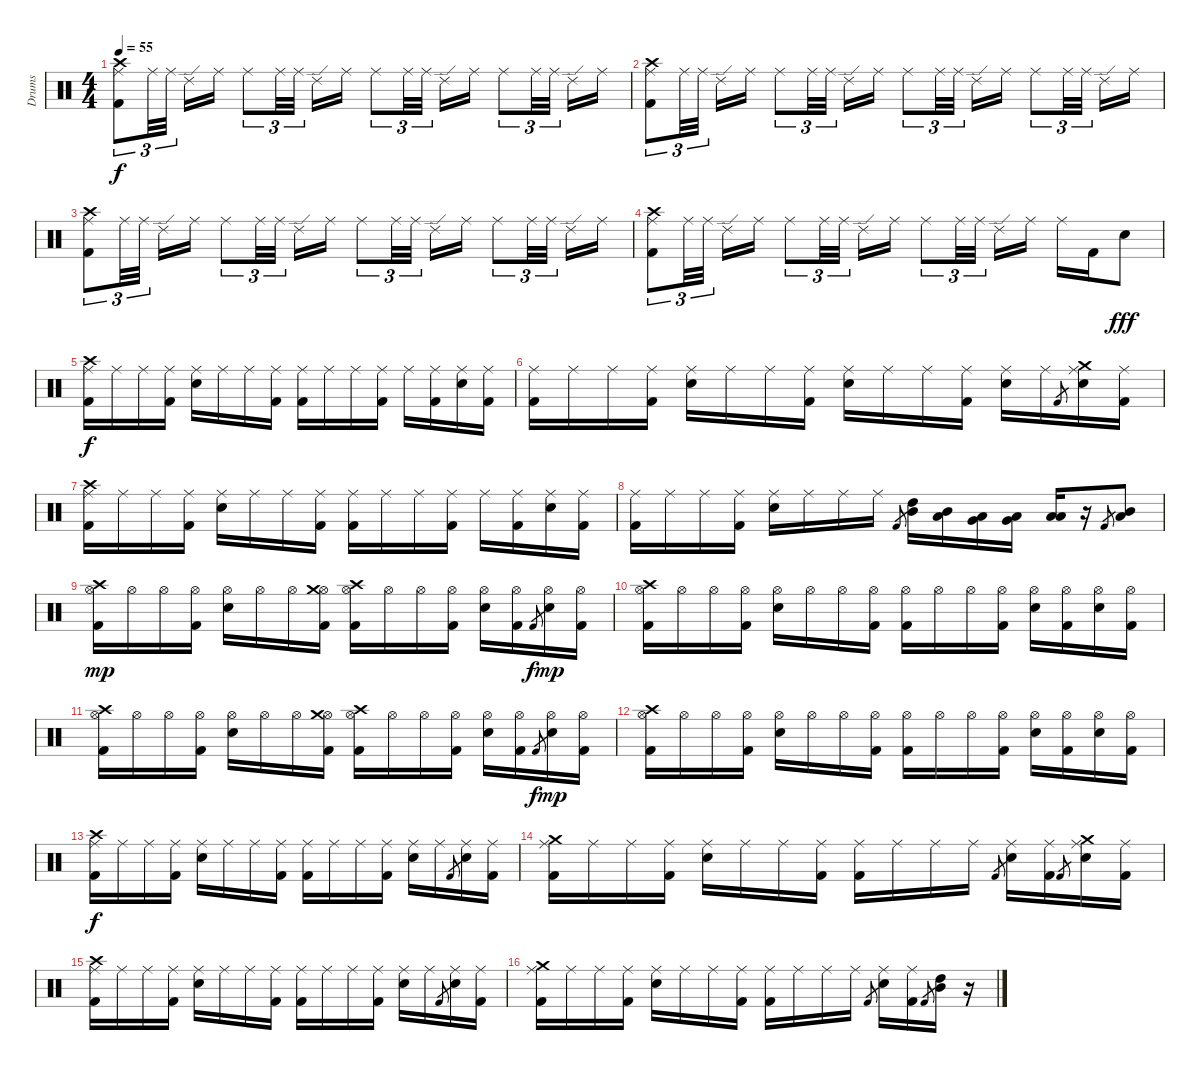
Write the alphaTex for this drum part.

\track ("Drums" "Drums") {instrument percussion}
\staff {score}
\articulation defaults
\ts (4 4)
\tempo 55
\clef neutral
\ks c
("Crash high (hit)" "Ride (middle)" "Kick (hit) 2").8{tu (3 2) dy f} "Ride (middle)".32{tu (3 2)} "Ride (middle)".32{tu (3 2)} "Ride (edge) 2".16 "Ride (middle)".16 "Ride (middle)".8{tu (3 2)} "Ride (middle)".32{tu (3 2)} "Ride (middle)".32{tu (3 2)} "Ride (edge) 2".16 "Ride (middle)".16 "Ride (middle)".8{tu (3 2)} "Ride (middle)".32{tu (3 2)} "Ride (middle)".32{tu (3 2)} "Ride (edge) 2".16 "Ride (middle)".16 "Ride (middle)".8{tu (3 2)} "Ride (middle)".32{tu (3 2)} "Ride (middle)".32{tu (3 2)} "Ride (edge) 2".16 "Ride (middle)".16 |
("Crash high (hit)" "Ride (middle)" "Kick (hit) 2").8{tu (3 2)} "Ride (middle)".32{tu (3 2)} "Ride (middle)".32{tu (3 2)} "Ride (edge) 2".16 "Ride (middle)".16 "Ride (middle)".8{tu (3 2)} "Ride (middle)".32{tu (3 2)} "Ride (middle)".32{tu (3 2)} "Ride (edge) 2".16 "Ride (middle)".16 "Ride (middle)".8{tu (3 2)} "Ride (middle)".32{tu (3 2)} "Ride (middle)".32{tu (3 2)} "Ride (edge) 2".16 "Ride (middle)".16 "Ride (middle)".8{tu (3 2)} "Ride (middle)".32{tu (3 2)} "Ride (middle)".32{tu (3 2)} "Ride (edge) 2".16 "Ride (middle)".16 |
("Crash high (hit)" "Ride (middle)" "Kick (hit) 2").8{tu (3 2)} "Ride (middle)".32{tu (3 2)} "Ride (middle)".32{tu (3 2)} "Ride (edge) 2".16 "Ride (middle)".16 "Ride (middle)".8{tu (3 2)} "Ride (middle)".32{tu (3 2)} "Ride (middle)".32{tu (3 2)} "Ride (edge) 2".16 "Ride (middle)".16 "Ride (middle)".8{tu (3 2)} "Ride (middle)".32{tu (3 2)} "Ride (middle)".32{tu (3 2)} "Ride (edge) 2".16 "Ride (middle)".16 "Ride (middle)".8{tu (3 2)} "Ride (middle)".32{tu (3 2)} "Ride (middle)".32{tu (3 2)} "Ride (edge) 2".16 "Ride (middle)".16 |
("Crash high (hit)" "Ride (middle)" "Kick (hit) 2").8{tu (3 2)} "Ride (middle)".32{tu (3 2)} "Ride (middle)".32{tu (3 2)} "Ride (edge) 2".16 "Ride (middle)".16 "Ride (middle)".8{tu (3 2)} "Ride (middle)".32{tu (3 2)} "Ride (middle)".32{tu (3 2)} "Ride (edge) 2".16 "Ride (middle)".16 "Ride (middle)".8{tu (3 2)} "Ride (middle)".32{tu (3 2)} "Ride (middle)".32{tu (3 2)} "Ride (edge) 2".16 "Ride (middle)".16 "Ride (middle)".16 "Kick (hit) 2".16 "Snare (hit) 2".8{dy fff} |
("Ride (middle)" "Crash high (hit)" "Kick (hit) 2").16{dy f} "Ride (middle)".16 "Ride (middle)".16 ("Ride (middle)" "Kick (hit) 2").16 ("Ride (middle)" "Snare (hit) 2").16 "Ride (middle)".16 "Ride (middle)".16 ("Ride (middle)" "Kick (hit) 2").16 ("Ride (middle)" "Kick (hit) 2").16 "Ride (middle)".16 "Ride (middle)".16 ("Ride (middle)" "Kick (hit) 2").16 "Ride (middle)".16 ("Ride (middle)" "Kick (hit) 2").16 ("Ride (middle)" "Snare (hit) 2").16 ("Ride (middle)" "Kick (hit) 2").16 |
("Ride (middle)" "Kick (hit) 2").16 "Ride (middle)".16 "Ride (middle)".16 ("Ride (middle)" "Kick (hit) 2").16 ("Ride (middle)" "Snare (hit) 2").16 "Ride (middle)".16 "Ride (middle)".16 ("Ride (middle)" "Kick (hit) 2").16 ("Ride (middle)" "Snare (hit) 2").16 "Ride (middle)".16 "Ride (middle)".16 ("Ride (middle)" "Kick (hit) 2").16 ("Ride (middle)" "Snare (hit) 2").16 "Ride (middle)".16 "Kick (hit) 2".8{gr} ("Ride (middle)" "Crash medium (hit)" "Snare (hit) 2").16 ("Ride (middle)" "Kick (hit) 2").16 |
("Ride (middle)" "Crash high (hit)" "Kick (hit) 2").16 "Ride (middle)".16 "Ride (middle)".16 ("Ride (middle)" "Kick (hit) 2").16 ("Ride (middle)" "Snare (hit) 2").16 "Ride (middle)".16 "Ride (middle)".16 ("Ride (middle)" "Kick (hit) 2").16 ("Ride (middle)" "Kick (hit) 2").16 "Ride (middle)".16 "Ride (middle)".16 ("Ride (middle)" "Kick (hit) 2").16 "Ride (middle)".16 ("Ride (middle)" "Kick (hit) 2").16 ("Ride (middle)" "Snare (hit) 2").16 ("Ride (middle)" "Kick (hit) 2").16 |
("Ride (middle)" "Kick (hit) 2").16 "Ride (middle)".16 "Ride (middle)".16 ("Ride (middle)" "Kick (hit) 2").16 ("Ride (middle)" "Snare (hit) 2").16 "Ride (middle)".16 "Ride (middle)".16 "Ride (middle)".16 "Kick (hit) 2".8{gr} ("High Tom (hit)" "Mid Tom (hit)").16 ("Mid Tom (hit)" "Low Tom (hit)").16 ("Low Tom (hit)" "Very Low Tom (hit)").16 ("Very Low Tom (hit)" "Low Floor Tom (hit)").16 ("Low Floor Tom (hit)" "Low Floor Tom (hit)").16 r.16 "Kick (hit) 2".8{gr} ("Mid Tom (hit)" "Low Tom (hit)").8 |
("Hi-Hat (open)" "Crash high (hit)" "Kick (hit) 2").16{dy mp} "Hi-Hat (open)".16 "Hi-Hat (open)".16 ("Hi-Hat (open)" "Kick (hit) 2").16 ("Hi-Hat (open)" "Snare (hit) 2").16 "Hi-Hat (open)".16 "Hi-Hat (open)".16 ("Hi-Hat (open)" "Crash medium (hit)" "Kick (hit) 2").16 ("Hi-Hat (open)" "Crash high (hit)" "Kick (hit) 2").16 "Hi-Hat (open)".16 "Hi-Hat (open)".16 ("Hi-Hat (open)" "Kick (hit) 2").16 ("Hi-Hat (open)" "Snare (hit) 2").16 ("Hi-Hat (open)" "Kick (hit) 2").16 "Kick (hit) 2".8{gr dy f} ("Hi-Hat (open)" "Snare (hit) 2").16{dy mp} ("Hi-Hat (open)" "Kick (hit) 2").16 |
("Hi-Hat (open)" "Crash high (hit)" "Kick (hit) 2").16 "Hi-Hat (open)".16 "Hi-Hat (open)".16 ("Hi-Hat (open)" "Kick (hit) 2").16 ("Hi-Hat (open)" "Snare (hit) 2").16 "Hi-Hat (open)".16 "Hi-Hat (open)".16 ("Hi-Hat (open)" "Kick (hit) 2").16 ("Hi-Hat (open)" "Kick (hit) 2").16 "Hi-Hat (open)".16 "Hi-Hat (open)".16 ("Hi-Hat (open)" "Kick (hit) 2").16 ("Hi-Hat (open)" "Snare (hit) 2").16 ("Hi-Hat (open)" "Kick (hit) 2").16 ("Hi-Hat (open)" "Snare (hit) 2").16 ("Hi-Hat (open)" "Kick (hit) 2").16 |
("Hi-Hat (open)" "Crash high (hit)" "Kick (hit) 2").16 "Hi-Hat (open)".16 "Hi-Hat (open)".16 ("Hi-Hat (open)" "Kick (hit) 2").16 ("Hi-Hat (open)" "Snare (hit) 2").16 "Hi-Hat (open)".16 "Hi-Hat (open)".16 ("Hi-Hat (open)" "Crash medium (hit)" "Kick (hit) 2").16 ("Hi-Hat (open)" "Crash high (hit)" "Kick (hit) 2").16 "Hi-Hat (open)".16 "Hi-Hat (open)".16 ("Hi-Hat (open)" "Kick (hit) 2").16 ("Hi-Hat (open)" "Snare (hit) 2").16 ("Hi-Hat (open)" "Kick (hit) 2").16 "Kick (hit) 2".8{gr dy f} ("Hi-Hat (open)" "Snare (hit) 2").16{dy mp} ("Hi-Hat (open)" "Kick (hit) 2").16 |
("Hi-Hat (open)" "Crash high (hit)" "Kick (hit) 2").16 "Hi-Hat (open)".16 "Hi-Hat (open)".16 ("Hi-Hat (open)" "Kick (hit) 2").16 ("Hi-Hat (open)" "Snare (hit) 2").16 "Hi-Hat (open)".16 "Hi-Hat (open)".16 ("Hi-Hat (open)" "Kick (hit) 2").16 ("Hi-Hat (open)" "Kick (hit) 2").16 "Hi-Hat (open)".16 "Hi-Hat (open)".16 ("Hi-Hat (open)" "Kick (hit) 2").16 ("Hi-Hat (open)" "Snare (hit) 2").16 ("Hi-Hat (open)" "Kick (hit) 2").16 ("Hi-Hat (open)" "Snare (hit) 2").16 ("Hi-Hat (open)" "Kick (hit) 2").16 |
("Ride (middle)" "Crash high (hit)" "Kick (hit) 2").16{dy f} "Ride (middle)".16 "Ride (middle)".16 ("Ride (middle)" "Kick (hit) 2").16 ("Ride (middle)" "Snare (hit) 2").16 "Ride (middle)".16 "Ride (middle)".16 ("Ride (middle)" "Kick (hit) 2").16 ("Ride (middle)" "Kick (hit) 2").16 "Ride (middle)".16 "Ride (middle)".16 ("Ride (middle)" "Kick (hit) 2").16 ("Ride (middle)" "Snare (hit) 2").16 "Ride (middle)".16 "Kick (hit) 2".8{gr} ("Ride (middle)" "Snare (hit) 2").16 ("Ride (middle)" "Kick (hit) 2").16 |
("Ride (middle)" "Crash medium (hit)" "Kick (hit) 2").16 "Ride (middle)".16 "Ride (middle)".16 ("Ride (middle)" "Kick (hit) 2").16 ("Ride (middle)" "Snare (hit) 2").16 "Ride (middle)".16 "Ride (middle)".16 ("Ride (middle)" "Kick (hit) 2").16 ("Ride (middle)" "Kick (hit) 2").16 "Ride (middle)".16 "Ride (middle)".16 "Ride (middle)".16 "Kick (hit) 2".8{gr} ("Ride (middle)" "Snare (hit) 2").16 ("Ride (middle)" "Kick (hit) 2").16 "Kick (hit) 2".8{gr} ("Ride (middle)" "Crash medium (hit)" "Snare (hit) 2").16 ("Ride (middle)" "Kick (hit) 2").16 |
("Ride (middle)" "Crash high (hit)" "Kick (hit) 2").16 "Ride (middle)".16 "Ride (middle)".16 ("Ride (middle)" "Kick (hit) 2").16 ("Ride (middle)" "Snare (hit) 2").16 "Ride (middle)".16 "Ride (middle)".16 ("Ride (middle)" "Kick (hit) 2").16 ("Ride (middle)" "Kick (hit) 2").16 "Ride (middle)".16 "Ride (middle)".16 ("Ride (middle)" "Kick (hit) 2").16 ("Ride (middle)" "Snare (hit) 2").16 "Ride (middle)".16 "Kick (hit) 2".8{gr} ("Ride (middle)" "Snare (hit) 2").16 ("Ride (middle)" "Kick (hit) 2").16 |
("Ride (middle)" "Crash medium (hit)" "Kick (hit) 2").16 "Ride (middle)".16 "Ride (middle)".16 ("Ride (middle)" "Kick (hit) 2").16 ("Ride (middle)" "Snare (hit) 2").16 "Ride (middle)".16 "Ride (middle)".16 ("Ride (middle)" "Kick (hit) 2").16 ("Ride (middle)" "Kick (hit) 2").16 "Ride (middle)".16 "Ride (middle)".16 "Ride (middle)".16 "Kick (hit) 2".8{gr} ("Ride (middle)" "Snare (hit) 2").16 ("Ride (middle)" "Kick (hit) 2").16 "Kick (hit) 2".8{gr} ("Mid Tom (hit)" "High Tom (hit)").16 r.16
